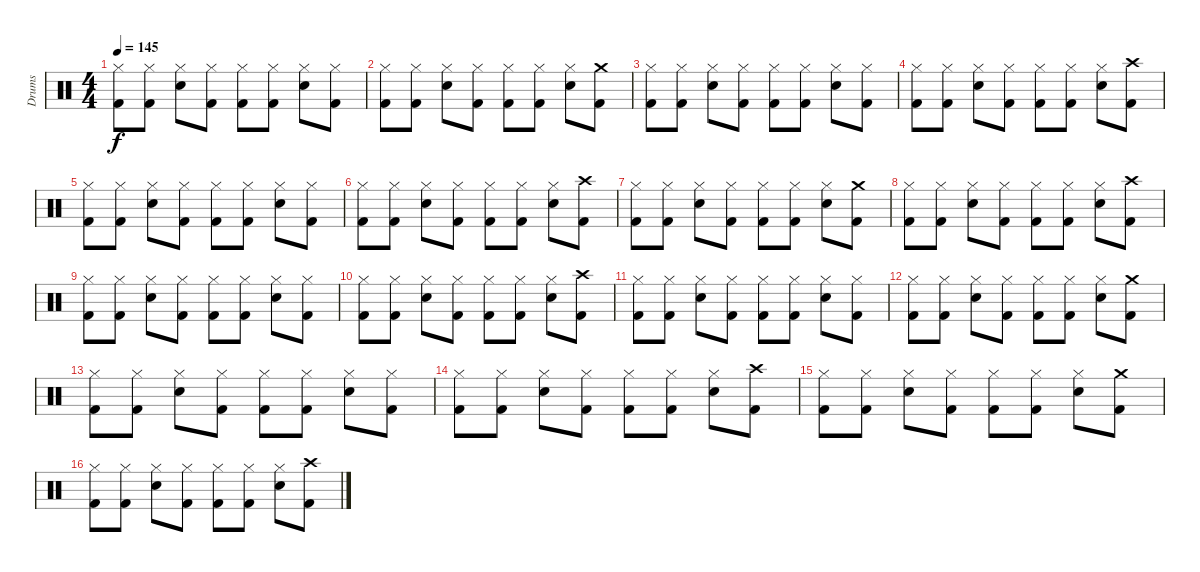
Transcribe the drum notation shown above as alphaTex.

\track ("Drums" "Drums") {instrument percussion}
\staff {score}
\articulation defaults
\ts (4 4)
\tempo 145
\clef neutral
\ks c
("Hi-Hat (closed)" "Kick (hit) 2").8{dy f} ("Hi-Hat (closed)" "Kick (hit) 2").8 ("Hi-Hat (closed)" "Snare (hit) 2").8 ("Hi-Hat (closed)" "Kick (hit) 2").8 ("Hi-Hat (closed)" "Kick (hit) 2").8 ("Hi-Hat (closed)" "Kick (hit) 2").8 ("Hi-Hat (closed)" "Snare (hit) 2").8 ("Hi-Hat (closed)" "Kick (hit) 2").8 |
("Hi-Hat (closed)" "Kick (hit) 2").8 ("Hi-Hat (closed)" "Kick (hit) 2").8 ("Hi-Hat (closed)" "Snare (hit) 2").8 ("Hi-Hat (closed)" "Kick (hit) 2").8 ("Hi-Hat (closed)" "Kick (hit) 2").8 ("Hi-Hat (closed)" "Kick (hit) 2").8 ("Hi-Hat (closed)" "Snare (hit) 2").8 ("Crash medium (hit)" "Kick (hit) 2").8 |
("Hi-Hat (closed)" "Kick (hit) 2").8 ("Hi-Hat (closed)" "Kick (hit) 2").8 ("Hi-Hat (closed)" "Snare (hit) 2").8 ("Hi-Hat (closed)" "Kick (hit) 2").8 ("Hi-Hat (closed)" "Kick (hit) 2").8 ("Hi-Hat (closed)" "Kick (hit) 2").8 ("Hi-Hat (closed)" "Snare (hit) 2").8 ("Hi-Hat (closed)" "Kick (hit) 2").8 |
("Hi-Hat (closed)" "Kick (hit) 2").8 ("Hi-Hat (closed)" "Kick (hit) 2").8 ("Hi-Hat (closed)" "Snare (hit) 2").8 ("Hi-Hat (closed)" "Kick (hit) 2").8 ("Hi-Hat (closed)" "Kick (hit) 2").8 ("Hi-Hat (closed)" "Kick (hit) 2").8 ("Hi-Hat (closed)" "Snare (hit) 2").8 ("Crash high (hit)" "Kick (hit) 2").8 |
("Hi-Hat (closed)" "Kick (hit) 2").8 ("Hi-Hat (closed)" "Kick (hit) 2").8 ("Hi-Hat (closed)" "Snare (hit) 2").8 ("Hi-Hat (closed)" "Kick (hit) 2").8 ("Hi-Hat (closed)" "Kick (hit) 2").8 ("Hi-Hat (closed)" "Kick (hit) 2").8 ("Hi-Hat (closed)" "Snare (hit) 2").8 ("Hi-Hat (closed)" "Kick (hit) 2").8 |
("Hi-Hat (closed)" "Kick (hit) 2").8 ("Hi-Hat (closed)" "Kick (hit) 2").8 ("Hi-Hat (closed)" "Snare (hit) 2").8 ("Hi-Hat (closed)" "Kick (hit) 2").8 ("Hi-Hat (closed)" "Kick (hit) 2").8 ("Hi-Hat (closed)" "Kick (hit) 2").8 ("Hi-Hat (closed)" "Snare (hit) 2").8 ("Crash high (hit)" "Kick (hit) 2").8 |
("Hi-Hat (closed)" "Kick (hit) 2").8 ("Hi-Hat (closed)" "Kick (hit) 2").8 ("Hi-Hat (closed)" "Snare (hit) 2").8 ("Hi-Hat (closed)" "Kick (hit) 2").8 ("Hi-Hat (closed)" "Kick (hit) 2").8 ("Hi-Hat (closed)" "Kick (hit) 2").8 ("Hi-Hat (closed)" "Snare (hit) 2").8 ("Crash medium (hit)" "Kick (hit) 2").8 |
("Hi-Hat (closed)" "Kick (hit) 2").8 ("Hi-Hat (closed)" "Kick (hit) 2").8 ("Hi-Hat (closed)" "Snare (hit) 2").8 ("Hi-Hat (closed)" "Kick (hit) 2").8 ("Hi-Hat (closed)" "Kick (hit) 2").8 ("Hi-Hat (closed)" "Kick (hit) 2").8 ("Hi-Hat (closed)" "Snare (hit) 2").8 ("Crash high (hit)" "Kick (hit) 2").8 |
("Hi-Hat (closed)" "Kick (hit) 2").8 ("Hi-Hat (closed)" "Kick (hit) 2").8 ("Hi-Hat (closed)" "Snare (hit) 2").8 ("Hi-Hat (closed)" "Kick (hit) 2").8 ("Hi-Hat (closed)" "Kick (hit) 2").8 ("Hi-Hat (closed)" "Kick (hit) 2").8 ("Hi-Hat (closed)" "Snare (hit) 2").8 ("Hi-Hat (closed)" "Kick (hit) 2").8 |
("Hi-Hat (closed)" "Kick (hit) 2").8 ("Hi-Hat (closed)" "Kick (hit) 2").8 ("Hi-Hat (closed)" "Snare (hit) 2").8 ("Hi-Hat (closed)" "Kick (hit) 2").8 ("Hi-Hat (closed)" "Kick (hit) 2").8 ("Hi-Hat (closed)" "Kick (hit) 2").8 ("Hi-Hat (closed)" "Snare (hit) 2").8 ("Crash high (hit)" "Kick (hit) 2").8 |
("Hi-Hat (closed)" "Kick (hit) 2").8 ("Hi-Hat (closed)" "Kick (hit) 2").8 ("Hi-Hat (closed)" "Snare (hit) 2").8 ("Hi-Hat (closed)" "Kick (hit) 2").8 ("Hi-Hat (closed)" "Kick (hit) 2").8 ("Hi-Hat (closed)" "Kick (hit) 2").8 ("Hi-Hat (closed)" "Snare (hit) 2").8 ("Hi-Hat (closed)" "Kick (hit) 2").8 |
("Hi-Hat (closed)" "Kick (hit) 2").8 ("Hi-Hat (closed)" "Kick (hit) 2").8 ("Hi-Hat (closed)" "Snare (hit) 2").8 ("Hi-Hat (closed)" "Kick (hit) 2").8 ("Hi-Hat (closed)" "Kick (hit) 2").8 ("Hi-Hat (closed)" "Kick (hit) 2").8 ("Hi-Hat (closed)" "Snare (hit) 2").8 ("Crash medium (hit)" "Kick (hit) 2").8 |
("Hi-Hat (closed)" "Kick (hit) 2").8 ("Hi-Hat (closed)" "Kick (hit) 2").8 ("Hi-Hat (closed)" "Snare (hit) 2").8 ("Hi-Hat (closed)" "Kick (hit) 2").8 ("Hi-Hat (closed)" "Kick (hit) 2").8 ("Hi-Hat (closed)" "Kick (hit) 2").8 ("Hi-Hat (closed)" "Snare (hit) 2").8 ("Hi-Hat (closed)" "Kick (hit) 2").8 |
("Hi-Hat (closed)" "Kick (hit) 2").8 ("Hi-Hat (closed)" "Kick (hit) 2").8 ("Hi-Hat (closed)" "Snare (hit) 2").8 ("Hi-Hat (closed)" "Kick (hit) 2").8 ("Hi-Hat (closed)" "Kick (hit) 2").8 ("Hi-Hat (closed)" "Kick (hit) 2").8 ("Hi-Hat (closed)" "Snare (hit) 2").8 ("Crash high (hit)" "Kick (hit) 2").8 |
("Hi-Hat (closed)" "Kick (hit) 2").8 ("Hi-Hat (closed)" "Kick (hit) 2").8 ("Hi-Hat (closed)" "Snare (hit) 2").8 ("Hi-Hat (closed)" "Kick (hit) 2").8 ("Hi-Hat (closed)" "Kick (hit) 2").8 ("Hi-Hat (closed)" "Kick (hit) 2").8 ("Hi-Hat (closed)" "Snare (hit) 2").8 ("Crash medium (hit)" "Kick (hit) 2").8 |
("Hi-Hat (closed)" "Kick (hit) 2").8 ("Hi-Hat (closed)" "Kick (hit) 2").8 ("Hi-Hat (closed)" "Snare (hit) 2").8 ("Hi-Hat (closed)" "Kick (hit) 2").8 ("Hi-Hat (closed)" "Kick (hit) 2").8 ("Hi-Hat (closed)" "Kick (hit) 2").8 ("Hi-Hat (closed)" "Snare (hit) 2").8 ("Crash high (hit)" "Kick (hit) 2").8
